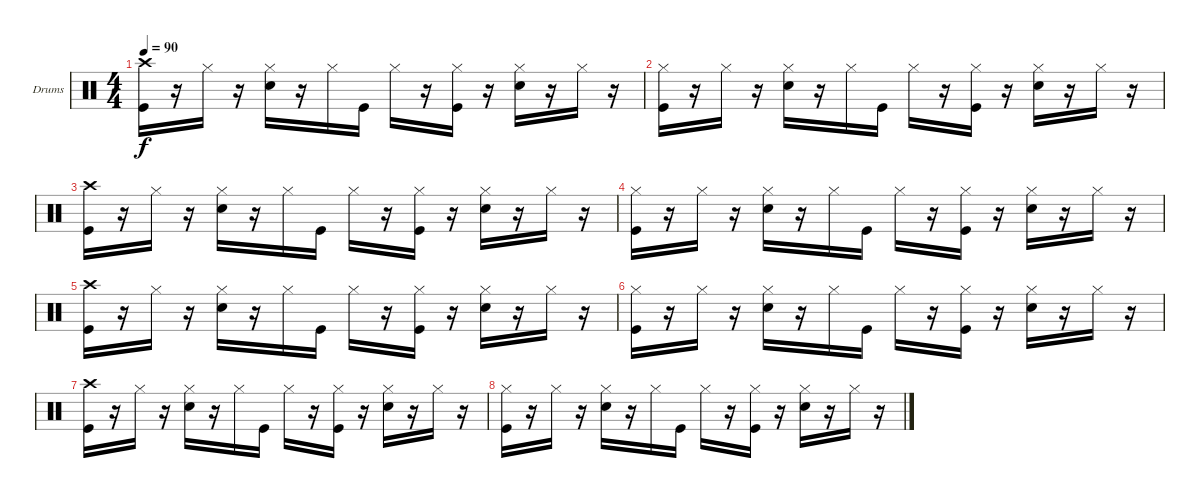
\defaultSystemsLayout 4
\bracketExtendMode groupsimilarinstruments
\firstSystemTrackNameOrientation horizontal
\otherSystemsTrackNameOrientation horizontal
\track ("Павел Тетерин(Pa$ok)" "Drums") {instrument percussion}
\staff {score}
\articulation defaults
\ts (4 4)
\tempo 90
\clef neutral
\scale
0.333333
\ks c
("Crash high (hit)" "Kick (hit)").16{dy f} r.16 "Hi-Hat (closed)".16 r.16 ("Hi-Hat (closed)" "Snare (hit) 2").16 r.16 "Hi-Hat (closed)".16 "Kick (hit)".16 "Hi-Hat (closed)".16 r.16 ("Hi-Hat (closed)" "Kick (hit)").16 r.16 ("Hi-Hat (closed)" "Snare (hit) 2").16 r.16 "Hi-Hat (closed)".16 r.16 |
\scale
0.333333 ("Hi-Hat (closed)" "Kick (hit)").16 r.16 "Hi-Hat (closed)".16 r.16 ("Hi-Hat (closed)" "Snare (hit) 2").16 r.16 "Hi-Hat (closed)".16 "Kick (hit)".16 "Hi-Hat (closed)".16 r.16 ("Hi-Hat (closed)" "Kick (hit)").16 r.16 ("Hi-Hat (closed)" "Snare (hit) 2").16 r.16 "Hi-Hat (closed)".16 r.16 |
\scale
0.333333 ("Crash high (hit)" "Kick (hit)").16 r.16 "Hi-Hat (closed)".16 r.16 ("Hi-Hat (closed)" "Snare (hit) 2").16 r.16 "Hi-Hat (closed)".16 "Kick (hit)".16 "Hi-Hat (closed)".16 r.16 ("Hi-Hat (closed)" "Kick (hit)").16 r.16 ("Hi-Hat (closed)" "Snare (hit) 2").16 r.16 "Hi-Hat (closed)".16 r.16 |
\scale
0.333333 ("Hi-Hat (closed)" "Kick (hit)").16 r.16 "Hi-Hat (closed)".16 r.16 ("Hi-Hat (closed)" "Snare (hit) 2").16 r.16 "Hi-Hat (closed)".16 "Kick (hit)".16 "Hi-Hat (closed)".16 r.16 ("Hi-Hat (closed)" "Kick (hit)").16 r.16 ("Hi-Hat (closed)" "Snare (hit) 2").16 r.16 "Hi-Hat (closed)".16 r.16 |
\scale
0.333333 ("Crash high (hit)" "Kick (hit)").16 r.16 "Hi-Hat (closed)".16 r.16 ("Hi-Hat (closed)" "Snare (hit) 2").16 r.16 "Hi-Hat (closed)".16 "Kick (hit)".16 "Hi-Hat (closed)".16 r.16 ("Hi-Hat (closed)" "Kick (hit)").16 r.16 ("Hi-Hat (closed)" "Snare (hit) 2").16 r.16 "Hi-Hat (closed)".16 r.16 |
("Hi-Hat (closed)" "Kick (hit)").16 r.16 "Hi-Hat (closed)".16 r.16 ("Hi-Hat (closed)" "Snare (hit) 2").16 r.16 "Hi-Hat (closed)".16 "Kick (hit)".16 "Hi-Hat (closed)".16 r.16 ("Hi-Hat (closed)" "Kick (hit)").16 r.16 ("Hi-Hat (closed)" "Snare (hit) 2").16 r.16 "Hi-Hat (closed)".16 r.16 |
("Crash high (hit)" "Kick (hit)").16 r.16 "Hi-Hat (closed)".16 r.16 ("Hi-Hat (closed)" "Snare (hit) 2").16 r.16 "Hi-Hat (closed)".16 "Kick (hit)".16 "Hi-Hat (closed)".16 r.16 ("Hi-Hat (closed)" "Kick (hit)").16 r.16 ("Hi-Hat (closed)" "Snare (hit) 2").16 r.16 "Hi-Hat (closed)".16 r.16 |
("Hi-Hat (closed)" "Kick (hit)").16 r.16 "Hi-Hat (closed)".16 r.16 ("Hi-Hat (closed)" "Snare (hit) 2").16 r.16 "Hi-Hat (closed)".16 "Kick (hit)".16 "Hi-Hat (closed)".16 r.16 ("Hi-Hat (closed)" "Kick (hit)").16 r.16 ("Hi-Hat (closed)" "Snare (hit) 2").16 r.16 "Hi-Hat (closed)".16 r.16
